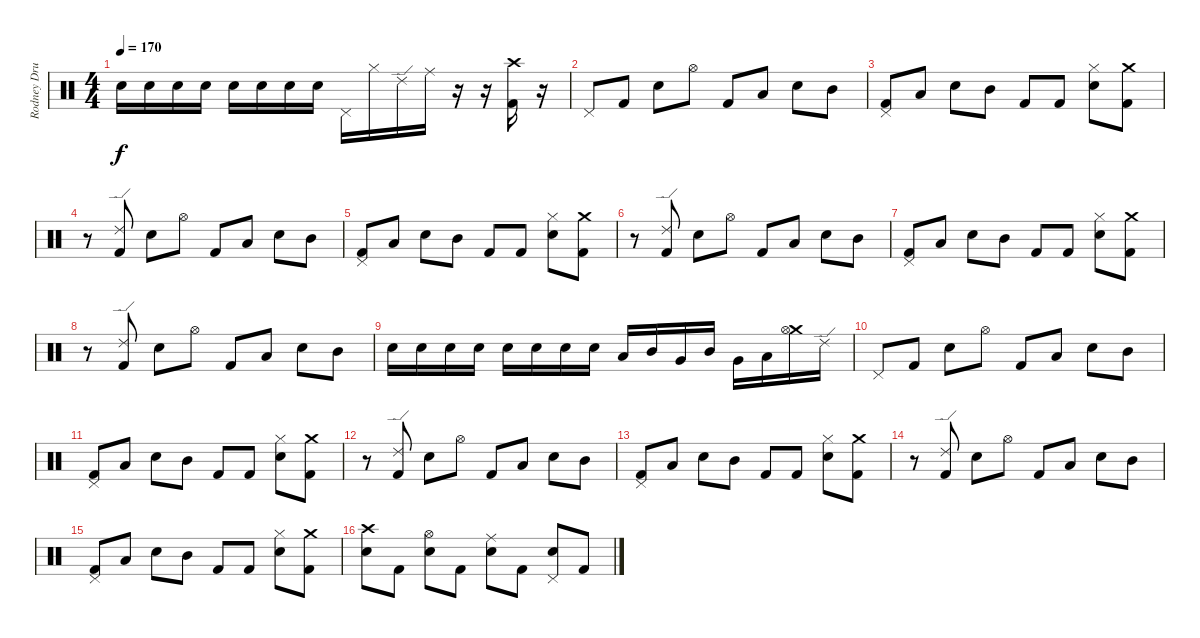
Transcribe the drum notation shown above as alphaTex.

\track ("Rodney Drums" "Rodney Dru") {instrument percussion}
\staff {score}
\articulation defaults
\ts (4 4)
\tempo 170
\clef neutral
\ks c "Electric Snare (hit)".16{dy f} "Electric Snare (hit)".16 "Electric Snare (hit)".16 "Electric Snare (hit)".16 "Electric Snare (hit)".16 "Electric Snare (hit)".16 "Electric Snare (hit)".16 "Electric Snare (hit)".16 "Pedal Hi-Hat (hit)".16 "Hi-Hat (closed)".16 "Ride (edge) 2".16 "Ride (middle)".16
r.16 r.16 ("Crash high (hit)" "Kick (hit) 2").16 r.16 |
"Pedal Hi-Hat (hit)".8 "Kick (hit) 2".8 "Electric Snare (hit)".8 "Hi-Hat (open)".8 "Kick (hit) 2".8 "Low Tom (hit)".8 "Electric Snare (hit)".8 "Mid Tom (hit)".8 |
("Pedal Hi-Hat (hit)" "Kick (hit) 2").8 "Low Tom (hit)".8 "Electric Snare (hit)".8 "Mid Tom (hit)".8 "Kick (hit) 2".8 "Kick (hit) 2".8 ("Hi-Hat (closed)" "Electric Snare (hit)").8 ("Crash medium (hit)" "Kick (hit) 2").8 |
r.8 ("Ride (edge) 2" "Kick (hit) 2").8 "Electric Snare (hit)".8 "Hi-Hat (open)".8 "Kick (hit) 2".8 "Low Tom (hit)".8 "Electric Snare (hit)".8 "Mid Tom (hit)".8 |
("Pedal Hi-Hat (hit)" "Kick (hit) 2").8 "Low Tom (hit)".8 "Electric Snare (hit)".8 "Mid Tom (hit)".8 "Kick (hit) 2".8 "Kick (hit) 2".8 ("Hi-Hat (closed)" "Electric Snare (hit)").8 ("Crash medium (hit)" "Kick (hit) 2").8 |
r.8 ("Ride (edge) 2" "Kick (hit) 2").8 "Electric Snare (hit)".8 "Hi-Hat (open)".8 "Kick (hit) 2".8 "Low Tom (hit)".8 "Electric Snare (hit)".8 "Mid Tom (hit)".8 |
("Pedal Hi-Hat (hit)" "Kick (hit) 2").8 "Low Tom (hit)".8 "Electric Snare (hit)".8 "Mid Tom (hit)".8 "Kick (hit) 2".8 "Kick (hit) 2".8 ("Hi-Hat (closed)" "Electric Snare (hit)").8 ("Crash medium (hit)" "Kick (hit) 2").8 |
r.8 ("Ride (edge) 2" "Kick (hit) 2").8 "Electric Snare (hit)".8 "Hi-Hat (open)".8 "Kick (hit) 2".8 "Low Tom (hit)".8 "Electric Snare (hit)".8 "Mid Tom (hit)".8 |
"Electric Snare (hit)".16 "Electric Snare (hit)".16 "Electric Snare (hit)".16 "Electric Snare (hit)".16 "Electric Snare (hit)".16 "Electric Snare (hit)".16 "Electric Snare (hit)".16 "Electric Snare (hit)".16 "Low Tom (hit)".16 "Mid Tom (hit)".16 "Very Low Tom (hit)".16 "Mid Tom (hit)".16 "Very Low Tom (hit)".16 "Low Tom (hit)".16 ("Crash medium (hit)" "Hi-Hat (open)").16 "Ride (edge) 2".16 |
"Pedal Hi-Hat (hit)".8 "Kick (hit) 2".8 "Electric Snare (hit)".8 "Hi-Hat (open)".8 "Kick (hit) 2".8 "Low Tom (hit)".8 "Electric Snare (hit)".8 "Mid Tom (hit)".8 |
("Pedal Hi-Hat (hit)" "Kick (hit) 2").8 "Low Tom (hit)".8 "Electric Snare (hit)".8 "Mid Tom (hit)".8 "Kick (hit) 2".8 "Kick (hit) 2".8 ("Hi-Hat (closed)" "Electric Snare (hit)").8 ("Crash medium (hit)" "Kick (hit) 2").8 |
r.8 ("Ride (edge) 2" "Kick (hit) 2").8 "Electric Snare (hit)".8 "Hi-Hat (open)".8 "Kick (hit) 2".8 "Low Tom (hit)".8 "Electric Snare (hit)".8 "Mid Tom (hit)".8 |
("Pedal Hi-Hat (hit)" "Kick (hit) 2").8 "Low Tom (hit)".8 "Electric Snare (hit)".8 "Mid Tom (hit)".8 "Kick (hit) 2".8 "Kick (hit) 2".8 ("Hi-Hat (closed)" "Electric Snare (hit)").8 ("Crash medium (hit)" "Kick (hit) 2").8 |
r.8 ("Ride (edge) 2" "Kick (hit) 2").8 "Electric Snare (hit)".8 "Hi-Hat (open)".8 "Kick (hit) 2".8 "Low Tom (hit)".8 "Electric Snare (hit)".8 "Mid Tom (hit)".8 |
("Pedal Hi-Hat (hit)" "Kick (hit) 2").8 "Low Tom (hit)".8 "Electric Snare (hit)".8 "Mid Tom (hit)".8 "Kick (hit) 2".8 "Kick (hit) 2".8 ("Hi-Hat (closed)" "Electric Snare (hit)").8 ("Crash medium (hit)" "Kick (hit) 2").8 |
("Crash high (hit)" "Electric Snare (hit)").8 "Kick (hit) 2".8 ("Hi-Hat (open)" "Electric Snare (hit)").8 "Kick (hit) 2".8 ("Ride (middle)" "Electric Snare (hit)").8 "Kick (hit) 2".8 ("Pedal Hi-Hat (hit)" "Electric Snare (hit)").8 "Kick (hit) 2".8
